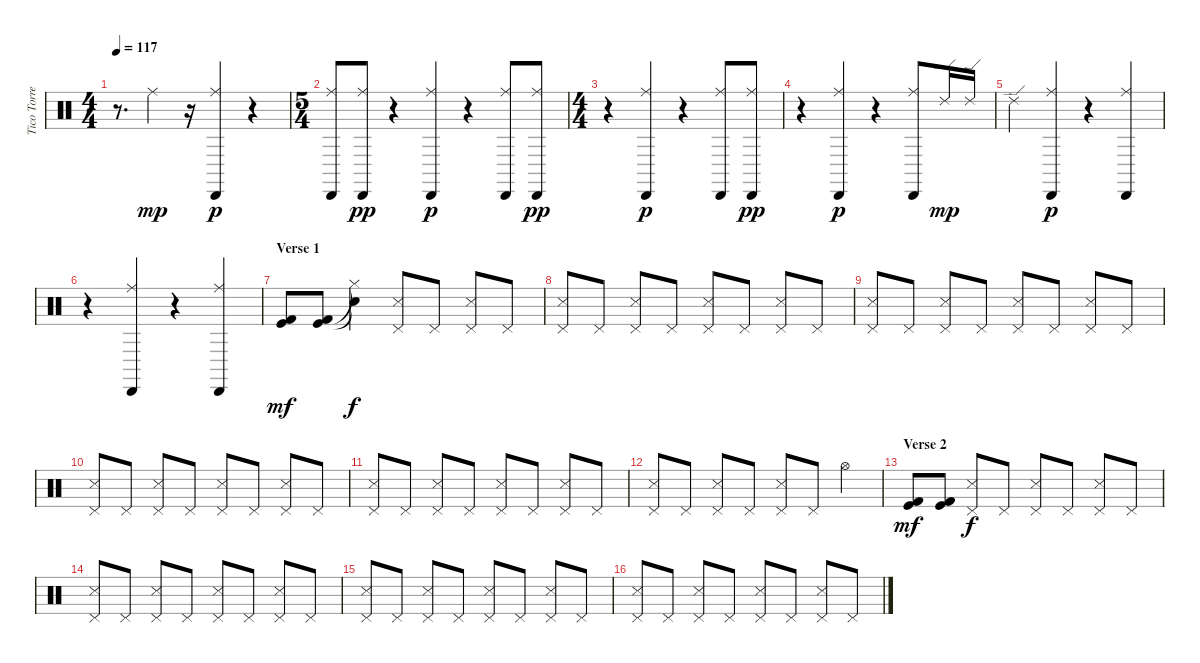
\track ("Tico Torres" "Tico Torre") {instrument percussion}
\staff {score}
\articulation defaults
\ts (4 4)
\tempo 115
\tempo 117
\clef neutral
\ks c
r.8{d dy mp} "Ride (middle)".4 r.16 ("Cabasa (hit)" "Ride (middle)").4{dy p} r.4 |
\ts (5 4)
("Cabasa (hit)" "Ride (middle)").8 ("Cabasa (hit)" "Ride (middle)").8{dy pp} r.4 ("Cabasa (hit)" "Ride (middle)").4{dy p} r.4 ("Cabasa (hit)" "Ride (middle)").8 ("Cabasa (hit)" "Ride (middle)").8{dy pp} |
\ts (4 4)
r.4 ("Cabasa (hit)" "Ride (middle)").4{dy p} r.4 ("Cabasa (hit)" "Ride (middle)").8 ("Cabasa (hit)" "Ride (middle)").8{dy pp} |
r.4 ("Cabasa (hit)" "Ride (middle)").4{dy p} r.4 ("Cabasa (hit)" "Ride (middle)").8 "Ride (edge) 2".16{dy mp} "Ride (edge) 2".16 |
"Ride (edge) 2".4 ("Cabasa (hit)" "Ride (middle)").4{dy p} r.4 ("Cabasa (hit)" "Ride (middle)").4 |
r.4 ("Cabasa (hit)" "Ride (middle)").4 r.4 ("Cabasa (hit)" "Ride (middle)").4 |
\section ("" "Verse 1")
("Kick (hit) 2" "Kick (hit)").8{dy mf} ("Kick (hit) 2" "Kick (hit)").8 ("Hi-Hat (closed)"{t} "Snare (hit)"{t}).4{dy f} ("Snare (side stick) 3" "Pedal Hi-Hat (hit)").8 "Pedal Hi-Hat (hit)".8 ("Snare (side stick) 3" "Pedal Hi-Hat (hit)").8 "Pedal Hi-Hat (hit)".8 |
("Snare (side stick) 3" "Pedal Hi-Hat (hit)").8 "Pedal Hi-Hat (hit)".8 ("Snare (side stick) 3" "Pedal Hi-Hat (hit)").8 "Pedal Hi-Hat (hit)".8 ("Snare (side stick) 3" "Pedal Hi-Hat (hit)").8 "Pedal Hi-Hat (hit)".8 ("Snare (side stick) 3" "Pedal Hi-Hat (hit)").8 "Pedal Hi-Hat (hit)".8 |
("Snare (side stick) 3" "Pedal Hi-Hat (hit)").8 "Pedal Hi-Hat (hit)".8 ("Snare (side stick) 3" "Pedal Hi-Hat (hit)").8 "Pedal Hi-Hat (hit)".8 ("Snare (side stick) 3" "Pedal Hi-Hat (hit)").8 "Pedal Hi-Hat (hit)".8 ("Snare (side stick) 3" "Pedal Hi-Hat (hit)").8 "Pedal Hi-Hat (hit)".8 |
("Snare (side stick) 3" "Pedal Hi-Hat (hit)").8 "Pedal Hi-Hat (hit)".8 ("Snare (side stick) 3" "Pedal Hi-Hat (hit)").8 "Pedal Hi-Hat (hit)".8 ("Snare (side stick) 3" "Pedal Hi-Hat (hit)").8 "Pedal Hi-Hat (hit)".8 ("Snare (side stick) 3" "Pedal Hi-Hat (hit)").8 "Pedal Hi-Hat (hit)".8 |
("Snare (side stick) 3" "Pedal Hi-Hat (hit)").8 "Pedal Hi-Hat (hit)".8 ("Snare (side stick) 3" "Pedal Hi-Hat (hit)").8 "Pedal Hi-Hat (hit)".8 ("Snare (side stick) 3" "Pedal Hi-Hat (hit)").8 "Pedal Hi-Hat (hit)".8 ("Snare (side stick) 3" "Pedal Hi-Hat (hit)").8 "Pedal Hi-Hat (hit)".8 |
("Snare (side stick) 3" "Pedal Hi-Hat (hit)").8 "Pedal Hi-Hat (hit)".8 ("Snare (side stick) 3" "Pedal Hi-Hat (hit)").8 "Pedal Hi-Hat (hit)".8 ("Snare (side stick) 3" "Pedal Hi-Hat (hit)").8 "Pedal Hi-Hat (hit)".8 "Hi-Hat (open)".4 |
\section ("" "Verse 2")
("Kick (hit) 2" "Kick (hit)").8{dy mf} ("Kick (hit) 2" "Kick (hit)").8 ("Snare (side stick) 3" "Pedal Hi-Hat (hit)").8{dy f} "Pedal Hi-Hat (hit)".8 ("Snare (side stick) 3" "Pedal Hi-Hat (hit)").8 "Pedal Hi-Hat (hit)".8 ("Snare (side stick) 3" "Pedal Hi-Hat (hit)").8 "Pedal Hi-Hat (hit)".8 |
("Snare (side stick) 3" "Pedal Hi-Hat (hit)").8 "Pedal Hi-Hat (hit)".8 ("Snare (side stick) 3" "Pedal Hi-Hat (hit)").8 "Pedal Hi-Hat (hit)".8 ("Snare (side stick) 3" "Pedal Hi-Hat (hit)").8 "Pedal Hi-Hat (hit)".8 ("Snare (side stick) 3" "Pedal Hi-Hat (hit)").8 "Pedal Hi-Hat (hit)".8 |
("Snare (side stick) 3" "Pedal Hi-Hat (hit)").8 "Pedal Hi-Hat (hit)".8 ("Snare (side stick) 3" "Pedal Hi-Hat (hit)").8 "Pedal Hi-Hat (hit)".8 ("Snare (side stick) 3" "Pedal Hi-Hat (hit)").8 "Pedal Hi-Hat (hit)".8 ("Snare (side stick) 3" "Pedal Hi-Hat (hit)").8 "Pedal Hi-Hat (hit)".8 |
("Snare (side stick) 3" "Pedal Hi-Hat (hit)").8 "Pedal Hi-Hat (hit)".8 ("Snare (side stick) 3" "Pedal Hi-Hat (hit)").8 "Pedal Hi-Hat (hit)".8 ("Snare (side stick) 3" "Pedal Hi-Hat (hit)").8 "Pedal Hi-Hat (hit)".8 ("Snare (side stick) 3" "Pedal Hi-Hat (hit)").8 "Pedal Hi-Hat (hit)".8
